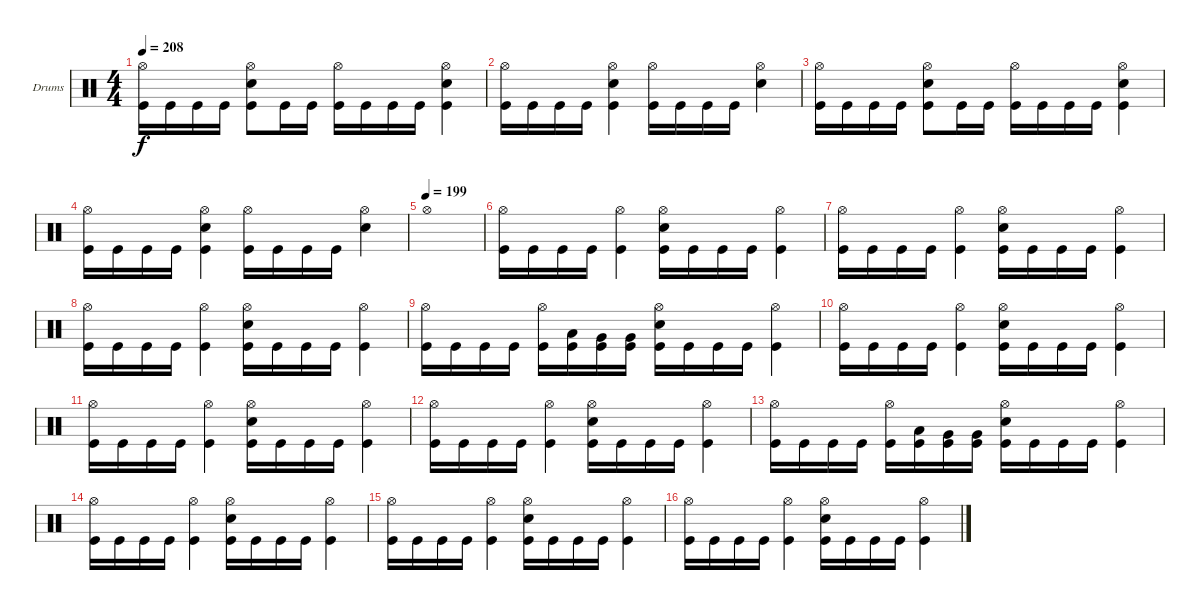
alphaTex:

\bracketExtendMode groupsimilarinstruments
\firstSystemTrackNameOrientation horizontal
\otherSystemsTrackNameOrientation horizontal
\track ("Drumkit" "Drums") {instrument percussion}
\staff {score}
\articulation defaults
\ts (4 4)
\tempo 208
\clef neutral
\ks c
("Hi-Hat (open)" "Kick (hit)").16{dy f} "Kick (hit)".16 "Kick (hit)".16 "Kick (hit)".16 ("Hi-Hat (open)" "Kick (hit)" "Snare (hit) 2").8 "Kick (hit)".16 "Kick (hit)".16 ("Hi-Hat (open)" "Kick (hit)").16 "Kick (hit)".16 "Kick (hit)".16 "Kick (hit)".16 ("Hi-Hat (open)" "Kick (hit)" "Snare (hit) 2").4 |
("Hi-Hat (open)" "Kick (hit)").16 "Kick (hit)".16 "Kick (hit)".16 "Kick (hit)".16 ("Hi-Hat (open)" "Kick (hit)" "Snare (hit) 2").4 ("Hi-Hat (open)" "Kick (hit)").16 "Kick (hit)".16 "Kick (hit)".16 "Kick (hit)".16 ("Hi-Hat (open)" "Snare (hit) 2").4 |
("Hi-Hat (open)" "Kick (hit)").16 "Kick (hit)".16 "Kick (hit)".16 "Kick (hit)".16 ("Hi-Hat (open)" "Kick (hit)" "Snare (hit) 2").8 "Kick (hit)".16 "Kick (hit)".16 ("Hi-Hat (open)" "Kick (hit)").16 "Kick (hit)".16 "Kick (hit)".16 "Kick (hit)".16 ("Hi-Hat (open)" "Kick (hit)" "Snare (hit) 2").4 |
("Hi-Hat (open)" "Kick (hit)").16 "Kick (hit)".16 "Kick (hit)".16 "Kick (hit)".16 ("Hi-Hat (open)" "Kick (hit)" "Snare (hit) 2").4 ("Hi-Hat (open)" "Kick (hit)").16 "Kick (hit)".16 "Kick (hit)".16 "Kick (hit)".16 ("Hi-Hat (open)" "Snare (hit) 2").4 |
\tempo (199)
"Hi-Hat (open)".1 |
("Hi-Hat (open)" "Kick (hit)").16 "Kick (hit)".16 "Kick (hit)".16 "Kick (hit)".16 ("Hi-Hat (open)" "Kick (hit)").4 ("Hi-Hat (open)" "Kick (hit)" "Snare (hit) 2").16 "Kick (hit)".16 "Kick (hit)".16 "Kick (hit)".16 ("Hi-Hat (open)" "Kick (hit)").4 |
("Hi-Hat (open)" "Kick (hit)").16 "Kick (hit)".16 "Kick (hit)".16 "Kick (hit)".16 ("Hi-Hat (open)" "Kick (hit)").4 ("Hi-Hat (open)" "Kick (hit)" "Snare (hit) 2").16 "Kick (hit)".16 "Kick (hit)".16 "Kick (hit)".16 ("Hi-Hat (open)" "Kick (hit)").4 |
("Hi-Hat (open)" "Kick (hit)").16 "Kick (hit)".16 "Kick (hit)".16 "Kick (hit)".16 ("Hi-Hat (open)" "Kick (hit)").4 ("Hi-Hat (open)" "Kick (hit)" "Snare (hit) 2").16 "Kick (hit)".16 "Kick (hit)".16 "Kick (hit)".16 ("Hi-Hat (open)" "Kick (hit)").4 |
("Hi-Hat (open)" "Kick (hit)").16 "Kick (hit)".16 "Kick (hit)".16 "Kick (hit)".16 ("Hi-Hat (open)" "Kick (hit)").16 ("Kick (hit)" "Low Tom (hit)").16 ("Kick (hit)" "Very Low Tom (hit)").16 ("Kick (hit)" "Very Low Tom (hit)").16 ("Hi-Hat (open)" "Kick (hit)" "Snare (hit) 2").16 "Kick (hit)".16 "Kick (hit)".16 "Kick (hit)".16 ("Hi-Hat (open)" "Kick (hit)").4 |
("Hi-Hat (open)" "Kick (hit)").16 "Kick (hit)".16 "Kick (hit)".16 "Kick (hit)".16 ("Hi-Hat (open)" "Kick (hit)").4 ("Hi-Hat (open)" "Kick (hit)" "Snare (hit) 2").16 "Kick (hit)".16 "Kick (hit)".16 "Kick (hit)".16 ("Hi-Hat (open)" "Kick (hit)").4 |
("Hi-Hat (open)" "Kick (hit)").16 "Kick (hit)".16 "Kick (hit)".16 "Kick (hit)".16 ("Hi-Hat (open)" "Kick (hit)").4 ("Hi-Hat (open)" "Kick (hit)" "Snare (hit) 2").16 "Kick (hit)".16 "Kick (hit)".16 "Kick (hit)".16 ("Hi-Hat (open)" "Kick (hit)").4 |
("Hi-Hat (open)" "Kick (hit)").16 "Kick (hit)".16 "Kick (hit)".16 "Kick (hit)".16 ("Hi-Hat (open)" "Kick (hit)").4 ("Hi-Hat (open)" "Kick (hit)" "Snare (hit) 2").16 "Kick (hit)".16 "Kick (hit)".16 "Kick (hit)".16 ("Hi-Hat (open)" "Kick (hit)").4 |
("Hi-Hat (open)" "Kick (hit)").16 "Kick (hit)".16 "Kick (hit)".16 "Kick (hit)".16 ("Hi-Hat (open)" "Kick (hit)").16 ("Kick (hit)" "Low Tom (hit)").16 ("Kick (hit)" "Very Low Tom (hit)").16 ("Kick (hit)" "Very Low Tom (hit)").16 ("Hi-Hat (open)" "Kick (hit)" "Snare (hit) 2").16 "Kick (hit)".16 "Kick (hit)".16 "Kick (hit)".16 ("Hi-Hat (open)" "Kick (hit)").4 |
("Hi-Hat (open)" "Kick (hit)").16 "Kick (hit)".16 "Kick (hit)".16 "Kick (hit)".16 ("Hi-Hat (open)" "Kick (hit)").4 ("Hi-Hat (open)" "Kick (hit)" "Snare (hit) 2").16 "Kick (hit)".16 "Kick (hit)".16 "Kick (hit)".16 ("Hi-Hat (open)" "Kick (hit)").4 |
("Hi-Hat (open)" "Kick (hit)").16 "Kick (hit)".16 "Kick (hit)".16 "Kick (hit)".16 ("Hi-Hat (open)" "Kick (hit)").4 ("Hi-Hat (open)" "Kick (hit)" "Snare (hit) 2").16 "Kick (hit)".16 "Kick (hit)".16 "Kick (hit)".16 ("Hi-Hat (open)" "Kick (hit)").4 |
("Hi-Hat (open)" "Kick (hit)").16 "Kick (hit)".16 "Kick (hit)".16 "Kick (hit)".16 ("Hi-Hat (open)" "Kick (hit)").4 ("Hi-Hat (open)" "Kick (hit)" "Snare (hit) 2").16 "Kick (hit)".16 "Kick (hit)".16 "Kick (hit)".16 ("Hi-Hat (open)" "Kick (hit)").4
